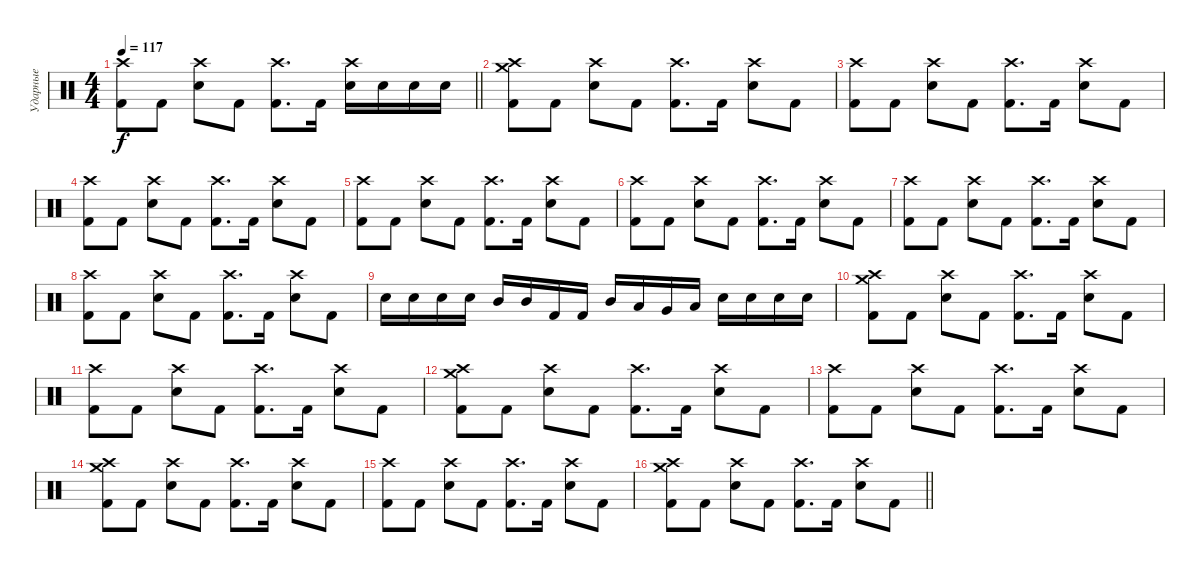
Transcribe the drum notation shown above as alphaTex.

\track ("Ударные" "Ударные") {instrument percussion}
\staff {score}
\articulation defaults
\ts (4 4)
\tempo 117
\clef neutral
\barLineRight lightlight
\ks c
("Crash high (hit)" "Kick (hit) 2").8{dy f} "Kick (hit) 2".8 ("Crash high (hit)" "Electric Snare (hit)").8 "Kick (hit) 2".8 ("Crash high (hit)" "Kick (hit) 2").8{d} "Kick (hit) 2".16 ("Crash high (hit)" "Electric Snare (hit)").16 "Electric Snare (hit)".16 "Electric Snare (hit)".16 "Electric Snare (hit)".16 |
("Crash medium (hit)" "Crash high (hit)" "Kick (hit) 2").8 "Kick (hit) 2".8 ("Crash high (hit)" "Electric Snare (hit)").8 "Kick (hit) 2".8 ("Crash high (hit)" "Kick (hit) 2").8{d} "Kick (hit) 2".16 ("Crash high (hit)" "Electric Snare (hit)").8 "Kick (hit) 2".8 |
("Crash high (hit)" "Kick (hit) 2").8 "Kick (hit) 2".8 ("Crash high (hit)" "Electric Snare (hit)").8 "Kick (hit) 2".8 ("Crash high (hit)" "Kick (hit) 2").8{d} "Kick (hit) 2".16 ("Crash high (hit)" "Electric Snare (hit)").8 "Kick (hit) 2".8 |
("Crash high (hit)" "Kick (hit) 2").8 "Kick (hit) 2".8 ("Crash high (hit)" "Electric Snare (hit)").8 "Kick (hit) 2".8 ("Crash high (hit)" "Kick (hit) 2").8{d} "Kick (hit) 2".16 ("Crash high (hit)" "Electric Snare (hit)").8 "Kick (hit) 2".8 |
("Crash high (hit)" "Kick (hit) 2").8 "Kick (hit) 2".8 ("Crash high (hit)" "Electric Snare (hit)").8 "Kick (hit) 2".8 ("Crash high (hit)" "Kick (hit) 2").8{d} "Kick (hit) 2".16 ("Crash high (hit)" "Electric Snare (hit)").8 "Kick (hit) 2".8 |
("Crash high (hit)" "Kick (hit) 2").8 "Kick (hit) 2".8 ("Crash high (hit)" "Electric Snare (hit)").8 "Kick (hit) 2".8 ("Crash high (hit)" "Kick (hit) 2").8{d} "Kick (hit) 2".16 ("Crash high (hit)" "Electric Snare (hit)").8 "Kick (hit) 2".8 |
("Crash high (hit)" "Kick (hit) 2").8 "Kick (hit) 2".8 ("Crash high (hit)" "Electric Snare (hit)").8 "Kick (hit) 2".8 ("Crash high (hit)" "Kick (hit) 2").8{d} "Kick (hit) 2".16 ("Crash high (hit)" "Electric Snare (hit)").8 "Kick (hit) 2".8 |
("Crash high (hit)" "Kick (hit) 2").8 "Kick (hit) 2".8 ("Crash high (hit)" "Electric Snare (hit)").8 "Kick (hit) 2".8 ("Crash high (hit)" "Kick (hit) 2").8{d} "Kick (hit) 2".16 ("Crash high (hit)" "Electric Snare (hit)").8 "Kick (hit) 2".8 |
"Electric Snare (hit)".16 "Electric Snare (hit)".16 "Electric Snare (hit)".16 "Electric Snare (hit)".16 "Mid Tom (hit)".16 "Mid Tom (hit)".16 "Kick (hit) 2".16 "Kick (hit) 2".16 "Mid Tom (hit)".16 "Low Tom (hit)".16 "Very Low Tom (hit)".16 "Low Floor Tom (hit)".16 "Electric Snare (hit)".16 "Electric Snare (hit)".16 "Electric Snare (hit)".16 "Electric Snare (hit)".16 |
("Crash medium (hit)" "Crash high (hit)" "Kick (hit) 2").8 "Kick (hit) 2".8 ("Crash high (hit)" "Electric Snare (hit)").8 "Kick (hit) 2".8 ("Crash high (hit)" "Kick (hit) 2").8{d} "Kick (hit) 2".16 ("Crash high (hit)" "Electric Snare (hit)").8 "Kick (hit) 2".8 |
("Crash high (hit)" "Kick (hit) 2").8 "Kick (hit) 2".8 ("Crash high (hit)" "Electric Snare (hit)").8 "Kick (hit) 2".8 ("Crash high (hit)" "Kick (hit) 2").8{d} "Kick (hit) 2".16 ("Crash high (hit)" "Electric Snare (hit)").8 "Kick (hit) 2".8 |
("Crash medium (hit)" "Crash high (hit)" "Kick (hit) 2").8 "Kick (hit) 2".8 ("Crash high (hit)" "Electric Snare (hit)").8 "Kick (hit) 2".8 ("Crash high (hit)" "Kick (hit) 2").8{d} "Kick (hit) 2".16 ("Crash high (hit)" "Electric Snare (hit)").8 "Kick (hit) 2".8 |
("Crash high (hit)" "Kick (hit) 2").8 "Kick (hit) 2".8 ("Crash high (hit)" "Electric Snare (hit)").8 "Kick (hit) 2".8 ("Crash high (hit)" "Kick (hit) 2").8{d} "Kick (hit) 2".16 ("Crash high (hit)" "Electric Snare (hit)").8 "Kick (hit) 2".8 |
("Crash medium (hit)" "Crash high (hit)" "Kick (hit) 2").8 "Kick (hit) 2".8 ("Crash high (hit)" "Electric Snare (hit)").8 "Kick (hit) 2".8 ("Crash high (hit)" "Kick (hit) 2").8{d} "Kick (hit) 2".16 ("Crash high (hit)" "Electric Snare (hit)").8 "Kick (hit) 2".8 |
("Crash high (hit)" "Kick (hit) 2").8 "Kick (hit) 2".8 ("Crash high (hit)" "Electric Snare (hit)").8 "Kick (hit) 2".8 ("Crash high (hit)" "Kick (hit) 2").8{d} "Kick (hit) 2".16 ("Crash high (hit)" "Electric Snare (hit)").8 "Kick (hit) 2".8 |
\barLineRight lightlight
("Crash medium (hit)" "Crash high (hit)" "Kick (hit) 2").8 "Kick (hit) 2".8 ("Crash high (hit)" "Electric Snare (hit)").8 "Kick (hit) 2".8 ("Crash high (hit)" "Kick (hit) 2").8{d} "Kick (hit) 2".16 ("Crash high (hit)" "Electric Snare (hit)").8 "Kick (hit) 2".8
